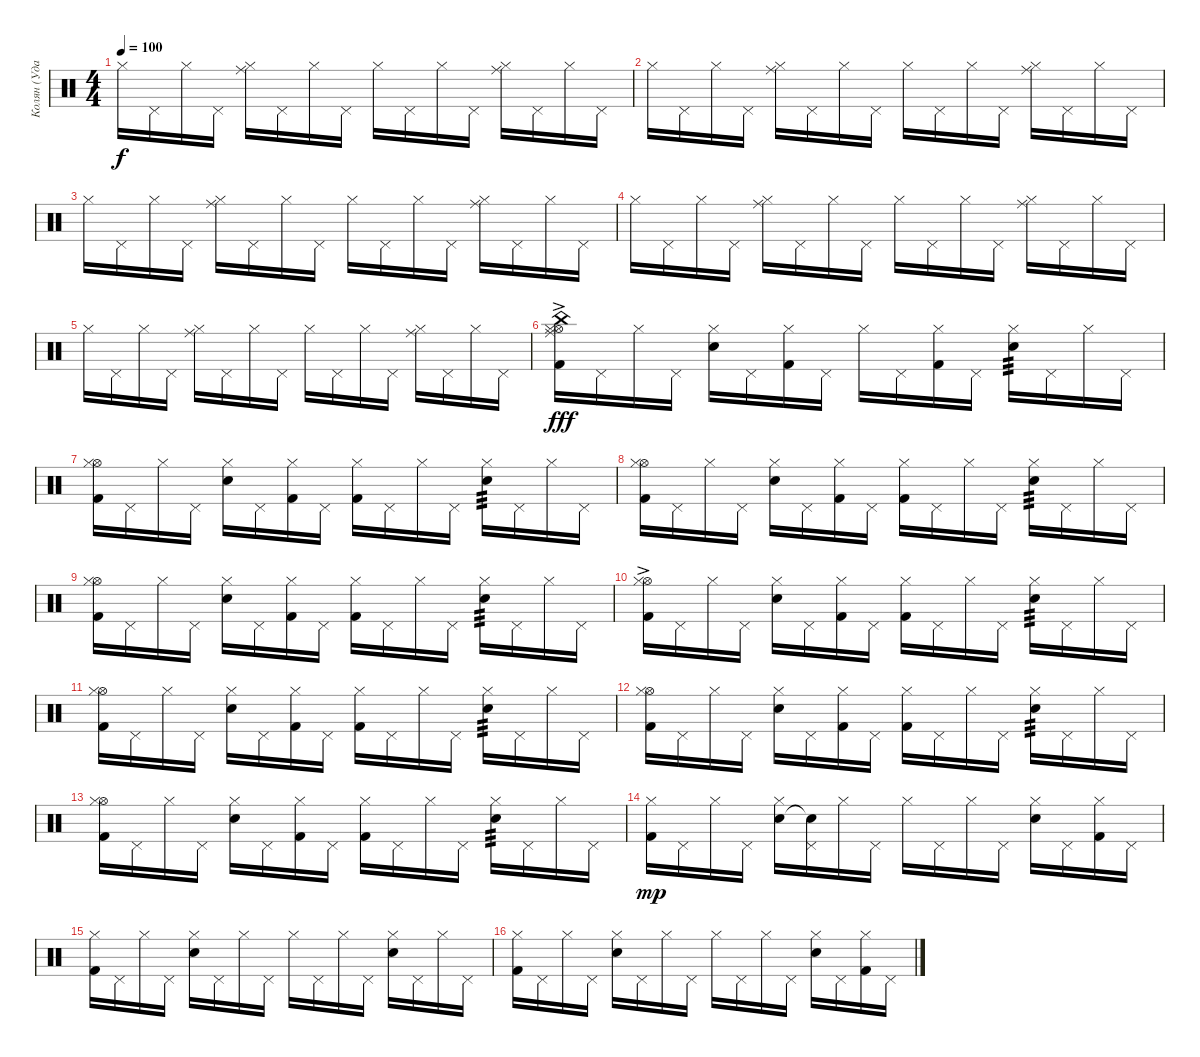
\track ("Колян (Ударные)" "Колян (Уда") {instrument percussion}
\staff {score}
\articulation defaults
\ts (4 4)
\tempo 100
\clef neutral
\ks c "Hi-Hat (closed)".16{dy f} "Pedal Hi-Hat (hit)".16 "Hi-Hat (closed)".16 "Pedal Hi-Hat (hit)".16
("Ride (middle)" "Hi-Hat (closed)").16 "Pedal Hi-Hat (hit)".16 "Hi-Hat (closed)".16 "Pedal Hi-Hat (hit)".16 "Hi-Hat (closed)".16 "Pedal Hi-Hat (hit)".16 "Hi-Hat (closed)".16 "Pedal Hi-Hat (hit)".16 ("Ride (middle)" "Hi-Hat (closed)").16 "Pedal Hi-Hat (hit)".16 "Hi-Hat (closed)".16 "Pedal Hi-Hat (hit)".16 |
"Hi-Hat (closed)".16 "Pedal Hi-Hat (hit)".16 "Hi-Hat (closed)".16 "Pedal Hi-Hat (hit)".16 ("Ride (middle)" "Hi-Hat (closed)").16 "Pedal Hi-Hat (hit)".16 "Hi-Hat (closed)".16 "Pedal Hi-Hat (hit)".16 "Hi-Hat (closed)".16 "Pedal Hi-Hat (hit)".16 "Hi-Hat (closed)".16 "Pedal Hi-Hat (hit)".16 ("Ride (middle)" "Hi-Hat (closed)").16 "Pedal Hi-Hat (hit)".16 "Hi-Hat (closed)".16 "Pedal Hi-Hat (hit)".16 |
"Hi-Hat (closed)".16 "Pedal Hi-Hat (hit)".16 "Hi-Hat (closed)".16 "Pedal Hi-Hat (hit)".16 ("Ride (middle)" "Hi-Hat (closed)").16 "Pedal Hi-Hat (hit)".16 "Hi-Hat (closed)".16 "Pedal Hi-Hat (hit)".16 "Hi-Hat (closed)".16 "Pedal Hi-Hat (hit)".16 "Hi-Hat (closed)".16 "Pedal Hi-Hat (hit)".16 ("Ride (middle)" "Hi-Hat (closed)").16 "Pedal Hi-Hat (hit)".16 "Hi-Hat (closed)".16 "Pedal Hi-Hat (hit)".16 |
"Hi-Hat (closed)".16 "Pedal Hi-Hat (hit)".16 "Hi-Hat (closed)".16 "Pedal Hi-Hat (hit)".16 ("Ride (middle)" "Hi-Hat (closed)").16 "Pedal Hi-Hat (hit)".16 "Hi-Hat (closed)".16 "Pedal Hi-Hat (hit)".16 "Hi-Hat (closed)".16 "Pedal Hi-Hat (hit)".16 "Hi-Hat (closed)".16 "Pedal Hi-Hat (hit)".16 ("Ride (middle)" "Hi-Hat (closed)").16 "Pedal Hi-Hat (hit)".16 "Hi-Hat (closed)".16 "Pedal Hi-Hat (hit)".16 |
"Hi-Hat (closed)".16 "Pedal Hi-Hat (hit)".16 "Hi-Hat (closed)".16 "Pedal Hi-Hat (hit)".16 ("Ride (middle)" "Hi-Hat (closed)").16 "Pedal Hi-Hat (hit)".16 "Hi-Hat (closed)".16 "Pedal Hi-Hat (hit)".16 "Hi-Hat (closed)".16 "Pedal Hi-Hat (hit)".16 "Hi-Hat (closed)".16 "Pedal Hi-Hat (hit)".16 ("Ride (middle)" "Hi-Hat (closed)").16 "Pedal Hi-Hat (hit)".16 "Hi-Hat (closed)".16 "Pedal Hi-Hat (hit)".16 |
("Kick (hit) 2" "Hi-Hat (open)"{ac} "China (hit)" "Ride (middle)" "Hi-Hat (closed)").16{dy fff volume 13} "Pedal Hi-Hat (hit)".16 "Hi-Hat (closed)".16 "Pedal Hi-Hat (hit)".16 ("Snare (hit) 2" "Hi-Hat (closed)").16 "Pedal Hi-Hat (hit)".16 ("Kick (hit) 2" "Hi-Hat (closed)").16 "Pedal Hi-Hat (hit)".16 "Hi-Hat (closed)".16 "Pedal Hi-Hat (hit)".16 ("Kick (hit) 2" "Hi-Hat (closed)").16 "Pedal Hi-Hat (hit)".16 ("Snare (hit) 2" "Hi-Hat (closed)").16{tp 3} "Pedal Hi-Hat (hit)".16 "Hi-Hat (closed)".16 "Pedal Hi-Hat (hit)".16 |
("Kick (hit) 2" "Hi-Hat (open)" "Hi-Hat (closed)").16 "Pedal Hi-Hat (hit)".16 "Hi-Hat (closed)".16 "Pedal Hi-Hat (hit)".16 ("Snare (hit) 2" "Hi-Hat (closed)").16 "Pedal Hi-Hat (hit)".16 ("Kick (hit) 2" "Hi-Hat (closed)").16 "Pedal Hi-Hat (hit)".16 ("Kick (hit) 2" "Hi-Hat (closed)").16 "Pedal Hi-Hat (hit)".16 "Hi-Hat (closed)".16 "Pedal Hi-Hat (hit)".16 ("Snare (hit) 2" "Hi-Hat (closed)").16{tp 3} "Pedal Hi-Hat (hit)".16 "Hi-Hat (closed)".16 "Pedal Hi-Hat (hit)".16 |
("Kick (hit) 2" "Hi-Hat (open)" "Hi-Hat (closed)").16 "Pedal Hi-Hat (hit)".16 "Hi-Hat (closed)".16 "Pedal Hi-Hat (hit)".16 ("Snare (hit) 2" "Hi-Hat (closed)").16 "Pedal Hi-Hat (hit)".16 ("Kick (hit) 2" "Hi-Hat (closed)").16 "Pedal Hi-Hat (hit)".16 ("Kick (hit) 2" "Hi-Hat (closed)").16 "Pedal Hi-Hat (hit)".16 "Hi-Hat (closed)".16 "Pedal Hi-Hat (hit)".16 ("Snare (hit) 2" "Hi-Hat (closed)").16{tp 3} "Pedal Hi-Hat (hit)".16 "Hi-Hat (closed)".16 "Pedal Hi-Hat (hit)".16 |
("Kick (hit) 2" "Hi-Hat (open)" "Hi-Hat (closed)").16 "Pedal Hi-Hat (hit)".16 "Hi-Hat (closed)".16 "Pedal Hi-Hat (hit)".16 ("Snare (hit) 2" "Hi-Hat (closed)").16 "Pedal Hi-Hat (hit)".16 ("Kick (hit) 2" "Hi-Hat (closed)").16 "Pedal Hi-Hat (hit)".16 ("Kick (hit) 2" "Hi-Hat (closed)").16 "Pedal Hi-Hat (hit)".16 "Hi-Hat (closed)".16 "Pedal Hi-Hat (hit)".16 ("Snare (hit) 2" "Hi-Hat (closed)").16{tp 3} "Pedal Hi-Hat (hit)".16 "Hi-Hat (closed)".16 "Pedal Hi-Hat (hit)".16 |
("Kick (hit) 2" "Hi-Hat (open)"{ac} "Hi-Hat (closed)").16{volume 13} "Pedal Hi-Hat (hit)".16 "Hi-Hat (closed)".16 "Pedal Hi-Hat (hit)".16 ("Snare (hit) 2" "Hi-Hat (closed)").16 "Pedal Hi-Hat (hit)".16 ("Kick (hit) 2" "Hi-Hat (closed)").16 "Pedal Hi-Hat (hit)".16 ("Kick (hit) 2" "Hi-Hat (closed)").16 "Pedal Hi-Hat (hit)".16 "Hi-Hat (closed)".16 "Pedal Hi-Hat (hit)".16 ("Snare (hit) 2" "Hi-Hat (closed)").16{tp 3} "Pedal Hi-Hat (hit)".16 "Hi-Hat (closed)".16 "Pedal Hi-Hat (hit)".16 |
("Kick (hit) 2" "Hi-Hat (open)" "Hi-Hat (closed)").16 "Pedal Hi-Hat (hit)".16 "Hi-Hat (closed)".16 "Pedal Hi-Hat (hit)".16 ("Snare (hit) 2" "Hi-Hat (closed)").16 "Pedal Hi-Hat (hit)".16 ("Kick (hit) 2" "Hi-Hat (closed)").16 "Pedal Hi-Hat (hit)".16 ("Kick (hit) 2" "Hi-Hat (closed)").16 "Pedal Hi-Hat (hit)".16 "Hi-Hat (closed)".16 "Pedal Hi-Hat (hit)".16 ("Snare (hit) 2" "Hi-Hat (closed)").16{tp 3} "Pedal Hi-Hat (hit)".16 "Hi-Hat (closed)".16 "Pedal Hi-Hat (hit)".16 |
("Kick (hit) 2" "Hi-Hat (open)" "Hi-Hat (closed)").16 "Pedal Hi-Hat (hit)".16 "Hi-Hat (closed)".16 "Pedal Hi-Hat (hit)".16 ("Snare (hit) 2" "Hi-Hat (closed)").16 "Pedal Hi-Hat (hit)".16 ("Kick (hit) 2" "Hi-Hat (closed)").16 "Pedal Hi-Hat (hit)".16 ("Kick (hit) 2" "Hi-Hat (closed)").16 "Pedal Hi-Hat (hit)".16 "Hi-Hat (closed)".16 "Pedal Hi-Hat (hit)".16 ("Snare (hit) 2" "Hi-Hat (closed)").16{tp 3} "Pedal Hi-Hat (hit)".16 "Hi-Hat (closed)".16 "Pedal Hi-Hat (hit)".16 |
("Kick (hit) 2" "Hi-Hat (open)" "Hi-Hat (closed)").16 "Pedal Hi-Hat (hit)".16 "Hi-Hat (closed)".16 "Pedal Hi-Hat (hit)".16 ("Snare (hit) 2" "Hi-Hat (closed)").16 "Pedal Hi-Hat (hit)".16 ("Kick (hit) 2" "Hi-Hat (closed)").16 "Pedal Hi-Hat (hit)".16 ("Kick (hit) 2" "Hi-Hat (closed)").16 "Pedal Hi-Hat (hit)".16 "Hi-Hat (closed)".16 "Pedal Hi-Hat (hit)".16 ("Snare (hit) 2" "Hi-Hat (closed)").16{tp 3} "Pedal Hi-Hat (hit)".16 "Hi-Hat (closed)".16 "Pedal Hi-Hat (hit)".16 |
("Kick (hit) 2" "Hi-Hat (closed)").16{dy mp} "Pedal Hi-Hat (hit)".16 "Hi-Hat (closed)".16 "Pedal Hi-Hat (hit)".16 ("Electric Snare (hit)" "Hi-Hat (closed)").16 ("Snare (hit)"{t} "Pedal Hi-Hat (hit)").16 "Hi-Hat (closed)".16 "Pedal Hi-Hat (hit)".16 "Hi-Hat (closed)".16 "Pedal Hi-Hat (hit)".16 "Hi-Hat (closed)".16 "Pedal Hi-Hat (hit)".16 ("Electric Snare (hit)" "Hi-Hat (closed)").16 "Pedal Hi-Hat (hit)".16 ("Kick (hit) 2" "Hi-Hat (closed)").16 "Pedal Hi-Hat (hit)".16 |
("Kick (hit) 2" "Hi-Hat (closed)").16 "Pedal Hi-Hat (hit)".16 "Hi-Hat (closed)".16 "Pedal Hi-Hat (hit)".16 ("Electric Snare (hit)" "Hi-Hat (closed)").16 "Pedal Hi-Hat (hit)".16 "Hi-Hat (closed)".16 "Pedal Hi-Hat (hit)".16 "Hi-Hat (closed)".16 "Pedal Hi-Hat (hit)".16 "Hi-Hat (closed)".16 "Pedal Hi-Hat (hit)".16 ("Electric Snare (hit)" "Hi-Hat (closed)").16 "Pedal Hi-Hat (hit)".16 "Hi-Hat (closed)".16 "Pedal Hi-Hat (hit)".16 |
("Kick (hit) 2" "Hi-Hat (closed)").16 "Pedal Hi-Hat (hit)".16 "Hi-Hat (closed)".16 "Pedal Hi-Hat (hit)".16 ("Electric Snare (hit)" "Hi-Hat (closed)").16 "Pedal Hi-Hat (hit)".16 "Hi-Hat (closed)".16 "Pedal Hi-Hat (hit)".16 "Hi-Hat (closed)".16 "Pedal Hi-Hat (hit)".16 "Hi-Hat (closed)".16 "Pedal Hi-Hat (hit)".16 ("Electric Snare (hit)" "Hi-Hat (closed)").16 "Pedal Hi-Hat (hit)".16 ("Kick (hit) 2" "Hi-Hat (closed)").16 "Pedal Hi-Hat (hit)".16
